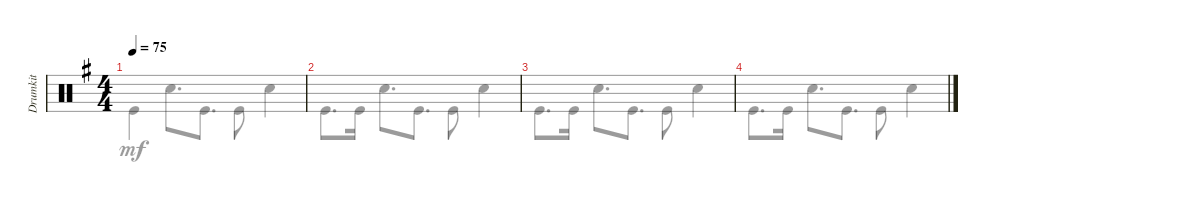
\track ("Drumkit" "Drumkit") {instrument percussion}
\staff {score}
\articulation defaults
\voice
\ts (4 4)
\tempo 75
\clef neutral
\ks eminor
|
|
|
|
|
|
\voice
\clef neutral
\ks eminor "Kick (hit)".4{dy mf} "Snare (hit) 2".8{d} "Kick (hit)".8{d} "Kick (hit)".8 "Snare (hit) 2".4
|
"Kick (hit)".8{d} "Kick (hit)".16 "Snare (hit) 2".8{d} "Kick (hit)".8{d} "Kick (hit)".8 "Snare (hit) 2".4 |
"Kick (hit)".8{d} "Kick (hit)".16 "Snare (hit) 2".8{d} "Kick (hit)".8{d} "Kick (hit)".8 "Snare (hit) 2".4 |
"Kick (hit)".8{d} "Kick (hit)".16 "Snare (hit) 2".8{d} "Kick (hit)".8{d} "Kick (hit)".8 "Snare (hit) 2".4 |
|
|
